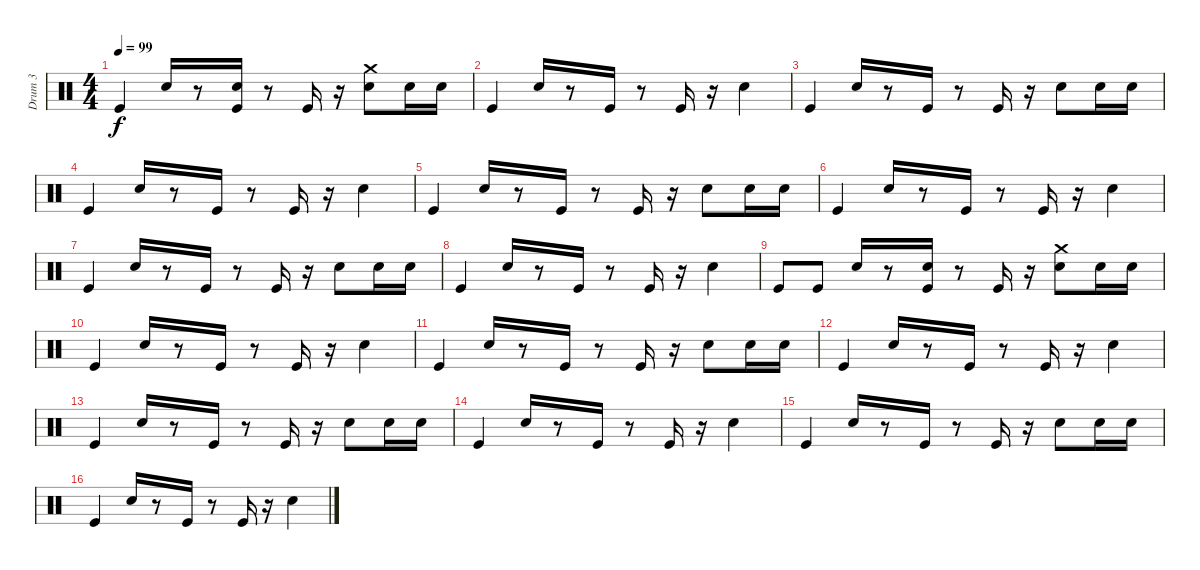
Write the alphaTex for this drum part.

\track ("Drum 3" "Drum 3") {instrument percussion}
\staff {score}
\articulation defaults
\ts (4 4)
\tempo 99
\clef neutral
\ks c "Kick (hit)".4{dy f} "Snare (hit) 2".16
r.8 ("Snare (hit) 2" "Kick (hit)").16 r.8 "Kick (hit)".16 r.16 ("Crash medium (hit)" "Snare (hit) 2").8 "Snare (hit) 2".16 "Snare (hit) 2".16 |
"Kick (hit)".4 "Snare (hit) 2".16 r.8 "Kick (hit)".16 r.8 "Kick (hit)".16 r.16 "Snare (hit) 2".4 |
"Kick (hit)".4 "Snare (hit) 2".16 r.8 "Kick (hit)".16 r.8 "Kick (hit)".16 r.16 "Snare (hit) 2".8 "Snare (hit) 2".16 "Snare (hit) 2".16 |
"Kick (hit)".4 "Snare (hit) 2".16 r.8 "Kick (hit)".16 r.8 "Kick (hit)".16 r.16 "Snare (hit) 2".4 |
"Kick (hit)".4 "Snare (hit) 2".16 r.8 "Kick (hit)".16 r.8 "Kick (hit)".16 r.16 "Snare (hit) 2".8 "Snare (hit) 2".16 "Snare (hit) 2".16 |
"Kick (hit)".4 "Snare (hit) 2".16 r.8 "Kick (hit)".16 r.8 "Kick (hit)".16 r.16 "Snare (hit) 2".4 |
"Kick (hit)".4 "Snare (hit) 2".16 r.8 "Kick (hit)".16 r.8 "Kick (hit)".16 r.16 "Snare (hit) 2".8 "Snare (hit) 2".16 "Snare (hit) 2".16 |
"Kick (hit)".4 "Snare (hit) 2".16 r.8 "Kick (hit)".16 r.8 "Kick (hit)".16 r.16 "Snare (hit) 2".4 |
"Kick (hit)".8 "Kick (hit)".8 "Snare (hit) 2".16 r.8 ("Kick (hit)" "Snare (hit) 2").16 r.8 "Kick (hit)".16 r.16 ("Crash medium (hit)" "Snare (hit) 2").8 "Snare (hit) 2".16 "Snare (hit) 2".16 |
"Kick (hit)".4 "Snare (hit) 2".16 r.8 "Kick (hit)".16 r.8 "Kick (hit)".16 r.16 "Snare (hit) 2".4 |
"Kick (hit)".4 "Snare (hit) 2".16 r.8 "Kick (hit)".16 r.8 "Kick (hit)".16 r.16 "Snare (hit) 2".8 "Snare (hit) 2".16 "Snare (hit) 2".16 |
"Kick (hit)".4 "Snare (hit) 2".16 r.8 "Kick (hit)".16 r.8 "Kick (hit)".16 r.16 "Snare (hit) 2".4 |
"Kick (hit)".4 "Snare (hit) 2".16 r.8 "Kick (hit)".16 r.8 "Kick (hit)".16 r.16 "Snare (hit) 2".8 "Snare (hit) 2".16 "Snare (hit) 2".16 |
"Kick (hit)".4 "Snare (hit) 2".16 r.8 "Kick (hit)".16 r.8 "Kick (hit)".16 r.16 "Snare (hit) 2".4 |
"Kick (hit)".4 "Snare (hit) 2".16 r.8 "Kick (hit)".16 r.8 "Kick (hit)".16 r.16 "Snare (hit) 2".8 "Snare (hit) 2".16 "Snare (hit) 2".16 |
"Kick (hit)".4 "Snare (hit) 2".16 r.8 "Kick (hit)".16 r.8 "Kick (hit)".16 r.16 "Snare (hit) 2".4
